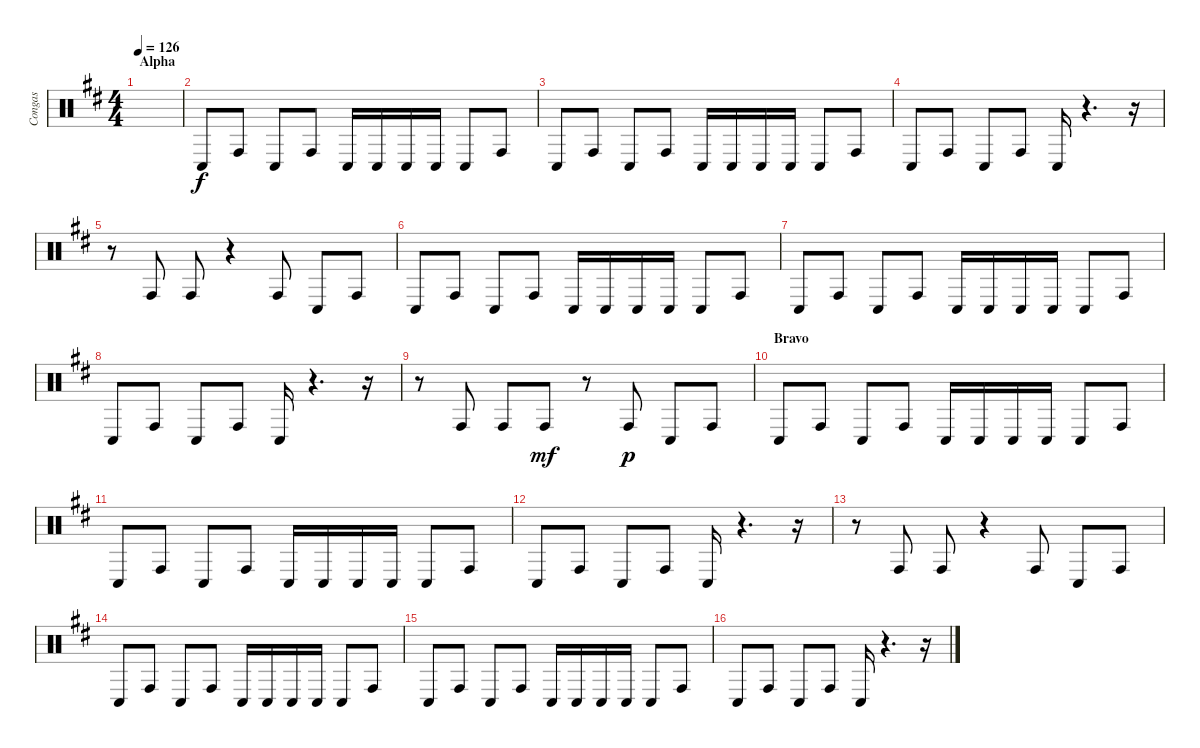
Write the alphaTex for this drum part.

\track ("Congas" "Congas") {instrument percussion}
\staff {score}
\articulation defaults
\ts (4 4)
\section ("" "Alpha")
\tempo 126
\clef neutral
\ks bminor
|
"Conga low (hit)".8 "Conga high (hit)".8 "Conga low (hit)".8 "Conga high (hit)".8 "Conga low (hit)".16 "Conga low (hit)".16 "Conga low (hit)".16 "Conga low (hit)".16 "Conga low (hit)".8 "Conga high (hit)".8 |
"Conga low (hit)".8 "Conga high (hit)".8 "Conga low (hit)".8 "Conga high (hit)".8 "Conga low (hit)".16 "Conga low (hit)".16 "Conga low (hit)".16 "Conga low (hit)".16 "Conga low (hit)".8 "Conga high (hit)".8 |
"Conga low (hit)".8 "Conga high (hit)".8 "Conga low (hit)".8 "Conga high (hit)".8 "Conga low (hit)".16 r.4{d} r.16 |
r.8 "Conga high (hit)".8 "Conga high (hit)".8 r.4 "Conga high (hit)".8 "Conga low (hit)".8 "Conga high (hit)".8 |
"Conga low (hit)".8 "Conga high (hit)".8 "Conga low (hit)".8 "Conga high (hit)".8 "Conga low (hit)".16 "Conga low (hit)".16 "Conga low (hit)".16 "Conga low (hit)".16 "Conga low (hit)".8 "Conga high (hit)".8 |
"Conga low (hit)".8 "Conga high (hit)".8 "Conga low (hit)".8 "Conga high (hit)".8 "Conga low (hit)".16 "Conga low (hit)".16 "Conga low (hit)".16 "Conga low (hit)".16 "Conga low (hit)".8 "Conga high (hit)".8 |
"Conga low (hit)".8 "Conga high (hit)".8 "Conga low (hit)".8 "Conga high (hit)".8 "Conga low (hit)".16 r.4{d} r.16 |
r.8 "Conga high (hit)".8 "Conga high (hit)".8 "Conga high (hit)".8{dy mf} r.8 "Conga high (hit)".8{dy p} "Conga low (hit)".8 "Conga high (hit)".8 |
\section ("" "Bravo")
"Conga low (hit)".8 "Conga high (hit)".8 "Conga low (hit)".8 "Conga high (hit)".8 "Conga low (hit)".16 "Conga low (hit)".16 "Conga low (hit)".16 "Conga low (hit)".16 "Conga low (hit)".8 "Conga high (hit)".8 |
"Conga low (hit)".8 "Conga high (hit)".8 "Conga low (hit)".8 "Conga high (hit)".8 "Conga low (hit)".16 "Conga low (hit)".16 "Conga low (hit)".16 "Conga low (hit)".16 "Conga low (hit)".8 "Conga high (hit)".8 |
"Conga low (hit)".8 "Conga high (hit)".8 "Conga low (hit)".8 "Conga high (hit)".8 "Conga low (hit)".16 r.4{d} r.16 |
r.8 "Conga high (hit)".8 "Conga high (hit)".8 r.4 "Conga high (hit)".8 "Conga low (hit)".8 "Conga high (hit)".8 |
"Conga low (hit)".8 "Conga high (hit)".8 "Conga low (hit)".8 "Conga high (hit)".8 "Conga low (hit)".16 "Conga low (hit)".16 "Conga low (hit)".16 "Conga low (hit)".16 "Conga low (hit)".8 "Conga high (hit)".8 |
"Conga low (hit)".8 "Conga high (hit)".8 "Conga low (hit)".8 "Conga high (hit)".8 "Conga low (hit)".16 "Conga low (hit)".16 "Conga low (hit)".16 "Conga low (hit)".16 "Conga low (hit)".8 "Conga high (hit)".8 |
"Conga low (hit)".8 "Conga high (hit)".8 "Conga low (hit)".8 "Conga high (hit)".8 "Conga low (hit)".16 r.4{d} r.16
